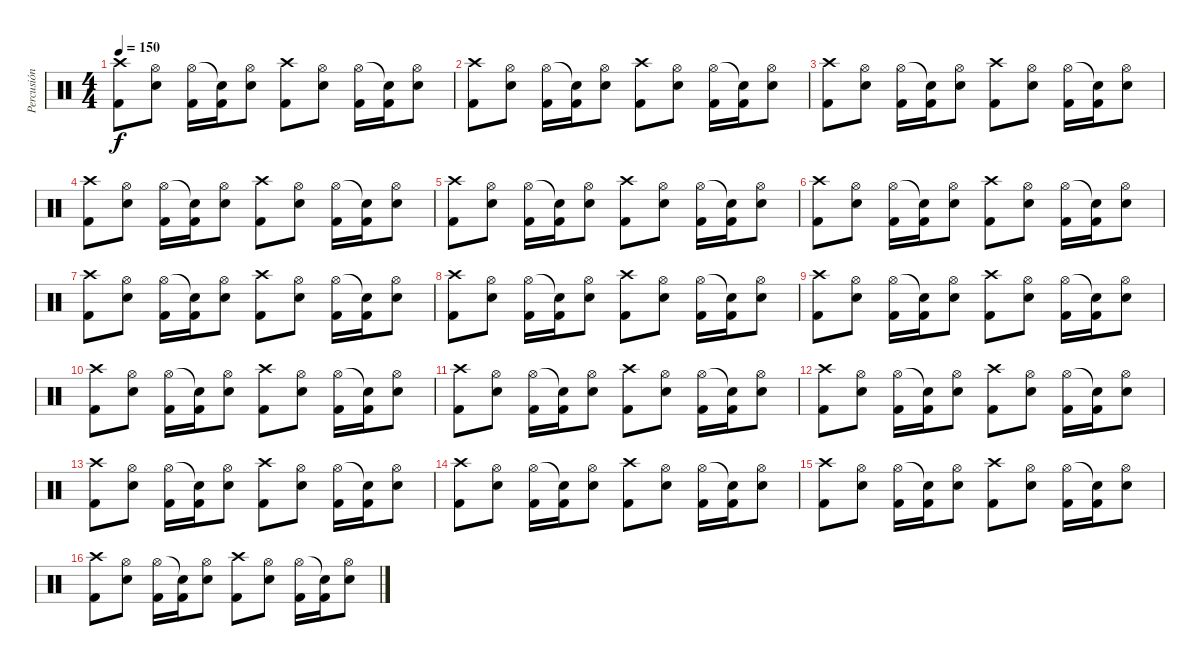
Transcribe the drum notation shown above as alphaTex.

\track ("Percusión" "Percusión") {instrument percussion}
\staff {score}
\articulation defaults
\ts (4 4)
\tempo 150
\clef neutral
\ks c
("Crash high (hit)" "Kick (hit) 2").8{dy f} ("Hi-Hat (open)" "Electric Snare (hit)").8 ("Hi-Hat (open)" "Kick (hit) 2").16 ("Snare (hit)"{t} "Kick (hit) 2").16 ("Hi-Hat (open)" "Electric Snare (hit)").8 ("Crash high (hit)" "Kick (hit) 2").8 ("Hi-Hat (open)" "Electric Snare (hit)").8 ("Hi-Hat (open)" "Kick (hit) 2").16 ("Snare (hit)"{t} "Kick (hit) 2").16 ("Hi-Hat (open)" "Electric Snare (hit)").8 |
("Crash high (hit)" "Kick (hit) 2").8 ("Hi-Hat (open)" "Electric Snare (hit)").8 ("Hi-Hat (open)" "Kick (hit) 2").16 ("Snare (hit)"{t} "Kick (hit) 2").16 ("Hi-Hat (open)" "Electric Snare (hit)").8 ("Crash high (hit)" "Kick (hit) 2").8 ("Hi-Hat (open)" "Electric Snare (hit)").8 ("Hi-Hat (open)" "Kick (hit) 2").16 ("Snare (hit)"{t} "Kick (hit) 2").16 ("Hi-Hat (open)" "Electric Snare (hit)").8 |
("Crash high (hit)" "Kick (hit) 2").8 ("Hi-Hat (open)" "Electric Snare (hit)").8 ("Hi-Hat (open)" "Kick (hit) 2").16 ("Snare (hit)"{t} "Kick (hit) 2").16 ("Hi-Hat (open)" "Electric Snare (hit)").8 ("Crash high (hit)" "Kick (hit) 2").8 ("Hi-Hat (open)" "Electric Snare (hit)").8 ("Hi-Hat (open)" "Kick (hit) 2").16 ("Snare (hit)"{t} "Kick (hit) 2").16 ("Hi-Hat (open)" "Electric Snare (hit)").8 |
("Crash high (hit)" "Kick (hit) 2").8 ("Hi-Hat (open)" "Electric Snare (hit)").8 ("Hi-Hat (open)" "Kick (hit) 2").16 ("Snare (hit)"{t} "Kick (hit) 2").16 ("Hi-Hat (open)" "Electric Snare (hit)").8 ("Crash high (hit)" "Kick (hit) 2").8 ("Hi-Hat (open)" "Electric Snare (hit)").8 ("Hi-Hat (open)" "Kick (hit) 2").16 ("Snare (hit)"{t} "Kick (hit) 2").16 ("Hi-Hat (open)" "Electric Snare (hit)").8 |
("Crash high (hit)" "Kick (hit) 2").8 ("Hi-Hat (open)" "Electric Snare (hit)").8 ("Hi-Hat (open)" "Kick (hit) 2").16 ("Snare (hit)"{t} "Kick (hit) 2").16 ("Hi-Hat (open)" "Electric Snare (hit)").8 ("Crash high (hit)" "Kick (hit) 2").8 ("Hi-Hat (open)" "Electric Snare (hit)").8 ("Hi-Hat (open)" "Kick (hit) 2").16 ("Snare (hit)"{t} "Kick (hit) 2").16 ("Hi-Hat (open)" "Electric Snare (hit)").8 |
("Crash high (hit)" "Kick (hit) 2").8 ("Hi-Hat (open)" "Electric Snare (hit)").8 ("Hi-Hat (open)" "Kick (hit) 2").16 ("Snare (hit)"{t} "Kick (hit) 2").16 ("Hi-Hat (open)" "Electric Snare (hit)").8 ("Crash high (hit)" "Kick (hit) 2").8 ("Hi-Hat (open)" "Electric Snare (hit)").8 ("Hi-Hat (open)" "Kick (hit) 2").16 ("Snare (hit)"{t} "Kick (hit) 2").16 ("Hi-Hat (open)" "Electric Snare (hit)").8 |
("Crash high (hit)" "Kick (hit) 2").8 ("Hi-Hat (open)" "Electric Snare (hit)").8 ("Hi-Hat (open)" "Kick (hit) 2").16 ("Snare (hit)"{t} "Kick (hit) 2").16 ("Hi-Hat (open)" "Electric Snare (hit)").8 ("Crash high (hit)" "Kick (hit) 2").8 ("Hi-Hat (open)" "Electric Snare (hit)").8 ("Hi-Hat (open)" "Kick (hit) 2").16 ("Snare (hit)"{t} "Kick (hit) 2").16 ("Hi-Hat (open)" "Electric Snare (hit)").8 |
("Crash high (hit)" "Kick (hit) 2").8 ("Hi-Hat (open)" "Electric Snare (hit)").8 ("Hi-Hat (open)" "Kick (hit) 2").16 ("Snare (hit)"{t} "Kick (hit) 2").16 ("Hi-Hat (open)" "Electric Snare (hit)").8 ("Crash high (hit)" "Kick (hit) 2").8 ("Hi-Hat (open)" "Electric Snare (hit)").8 ("Hi-Hat (open)" "Kick (hit) 2").16 ("Snare (hit)"{t} "Kick (hit) 2").16 ("Hi-Hat (open)" "Electric Snare (hit)").8 |
("Crash high (hit)" "Kick (hit) 2").8 ("Hi-Hat (open)" "Electric Snare (hit)").8 ("Hi-Hat (open)" "Kick (hit) 2").16 ("Snare (hit)"{t} "Kick (hit) 2").16 ("Hi-Hat (open)" "Electric Snare (hit)").8 ("Crash high (hit)" "Kick (hit) 2").8 ("Hi-Hat (open)" "Electric Snare (hit)").8 ("Hi-Hat (open)" "Kick (hit) 2").16 ("Snare (hit)"{t} "Kick (hit) 2").16 ("Hi-Hat (open)" "Electric Snare (hit)").8 |
("Crash high (hit)" "Kick (hit) 2").8 ("Hi-Hat (open)" "Electric Snare (hit)").8 ("Hi-Hat (open)" "Kick (hit) 2").16 ("Snare (hit)"{t} "Kick (hit) 2").16 ("Hi-Hat (open)" "Electric Snare (hit)").8 ("Crash high (hit)" "Kick (hit) 2").8 ("Hi-Hat (open)" "Electric Snare (hit)").8 ("Hi-Hat (open)" "Kick (hit) 2").16 ("Snare (hit)"{t} "Kick (hit) 2").16 ("Hi-Hat (open)" "Electric Snare (hit)").8 |
("Crash high (hit)" "Kick (hit) 2").8 ("Hi-Hat (open)" "Electric Snare (hit)").8 ("Hi-Hat (open)" "Kick (hit) 2").16 ("Snare (hit)"{t} "Kick (hit) 2").16 ("Hi-Hat (open)" "Electric Snare (hit)").8 ("Crash high (hit)" "Kick (hit) 2").8 ("Hi-Hat (open)" "Electric Snare (hit)").8 ("Hi-Hat (open)" "Kick (hit) 2").16 ("Snare (hit)"{t} "Kick (hit) 2").16 ("Hi-Hat (open)" "Electric Snare (hit)").8 |
("Crash high (hit)" "Kick (hit) 2").8 ("Hi-Hat (open)" "Electric Snare (hit)").8 ("Hi-Hat (open)" "Kick (hit) 2").16 ("Snare (hit)"{t} "Kick (hit) 2").16 ("Hi-Hat (open)" "Electric Snare (hit)").8 ("Crash high (hit)" "Kick (hit) 2").8 ("Hi-Hat (open)" "Electric Snare (hit)").8 ("Hi-Hat (open)" "Kick (hit) 2").16 ("Snare (hit)"{t} "Kick (hit) 2").16 ("Hi-Hat (open)" "Electric Snare (hit)").8 |
("Crash high (hit)" "Kick (hit) 2").8 ("Hi-Hat (open)" "Electric Snare (hit)").8 ("Hi-Hat (open)" "Kick (hit) 2").16 ("Snare (hit)"{t} "Kick (hit) 2").16 ("Hi-Hat (open)" "Electric Snare (hit)").8 ("Crash high (hit)" "Kick (hit) 2").8 ("Hi-Hat (open)" "Electric Snare (hit)").8 ("Hi-Hat (open)" "Kick (hit) 2").16 ("Snare (hit)"{t} "Kick (hit) 2").16 ("Hi-Hat (open)" "Electric Snare (hit)").8 |
("Crash high (hit)" "Kick (hit) 2").8 ("Hi-Hat (open)" "Electric Snare (hit)").8 ("Hi-Hat (open)" "Kick (hit) 2").16 ("Snare (hit)"{t} "Kick (hit) 2").16 ("Hi-Hat (open)" "Electric Snare (hit)").8 ("Crash high (hit)" "Kick (hit) 2").8 ("Hi-Hat (open)" "Electric Snare (hit)").8 ("Hi-Hat (open)" "Kick (hit) 2").16 ("Snare (hit)"{t} "Kick (hit) 2").16 ("Hi-Hat (open)" "Electric Snare (hit)").8 |
("Crash high (hit)" "Kick (hit) 2").8 ("Hi-Hat (open)" "Electric Snare (hit)").8 ("Hi-Hat (open)" "Kick (hit) 2").16 ("Snare (hit)"{t} "Kick (hit) 2").16 ("Hi-Hat (open)" "Electric Snare (hit)").8 ("Crash high (hit)" "Kick (hit) 2").8 ("Hi-Hat (open)" "Electric Snare (hit)").8 ("Hi-Hat (open)" "Kick (hit) 2").16 ("Snare (hit)"{t} "Kick (hit) 2").16 ("Hi-Hat (open)" "Electric Snare (hit)").8 |
("Crash high (hit)" "Kick (hit) 2").8 ("Hi-Hat (open)" "Electric Snare (hit)").8 ("Hi-Hat (open)" "Kick (hit) 2").16 ("Snare (hit)"{t} "Kick (hit) 2").16 ("Hi-Hat (open)" "Electric Snare (hit)").8 ("Crash high (hit)" "Kick (hit) 2").8 ("Hi-Hat (open)" "Electric Snare (hit)").8 ("Hi-Hat (open)" "Kick (hit) 2").16 ("Snare (hit)"{t} "Kick (hit) 2").16 ("Hi-Hat (open)" "Electric Snare (hit)").8
